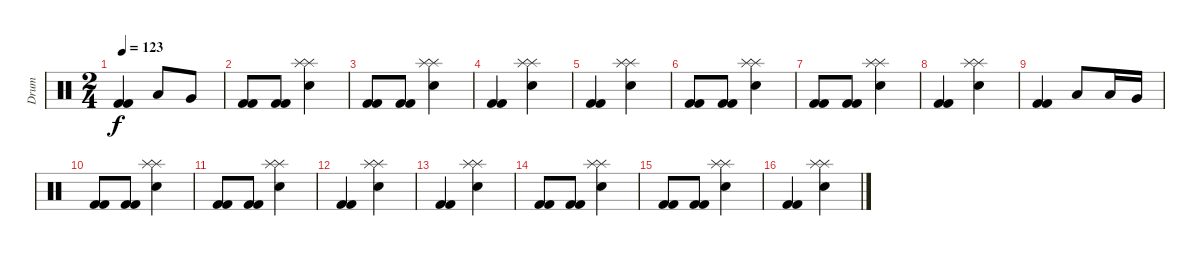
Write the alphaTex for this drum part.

\track ("Drum" "Drum") {instrument percussion}
\staff {score}
\articulation defaults
\ts (2 4)
\tempo 123
\clef neutral
\ks c
("Kick (hit) 2" "Kick (hit) 2").4{dy f} "Low Tom (hit)".8 "Very Low Tom (hit)".8 |
("Kick (hit) 2" "Kick (hit) 2").8 ("Kick (hit) 2" "Kick (hit) 2").8 ("Splash (hit)" "Splash (hit)" "Snare (hit) 2").4 |
("Kick (hit) 2" "Kick (hit) 2").8 ("Kick (hit) 2" "Kick (hit) 2").8 ("Splash (hit)" "Splash (hit)" "Snare (hit) 2").4 |
("Kick (hit) 2" "Kick (hit) 2").4 ("Splash (hit)" "Splash (hit)" "Snare (hit) 2").4 |
("Kick (hit) 2" "Kick (hit) 2").4 ("Splash (hit)" "Splash (hit)" "Snare (hit) 2").4 |
("Kick (hit) 2" "Kick (hit) 2").8 ("Kick (hit) 2" "Kick (hit) 2").8 ("Splash (hit)" "Splash (hit)" "Snare (hit) 2").4 |
("Kick (hit) 2" "Kick (hit) 2").8 ("Kick (hit) 2" "Kick (hit) 2").8 ("Splash (hit)" "Splash (hit)" "Snare (hit) 2").4 |
("Kick (hit) 2" "Kick (hit) 2").4 ("Splash (hit)" "Splash (hit)" "Snare (hit) 2").4 |
("Kick (hit) 2" "Kick (hit) 2").4 "Low Tom (hit)".8 "Low Tom (hit)".16 "Very Low Tom (hit)".16 |
("Kick (hit) 2" "Kick (hit) 2").8 ("Kick (hit) 2" "Kick (hit) 2").8 ("Splash (hit)" "Splash (hit)" "Snare (hit) 2").4 |
("Kick (hit) 2" "Kick (hit) 2").8 ("Kick (hit) 2" "Kick (hit) 2").8 ("Splash (hit)" "Splash (hit)" "Snare (hit) 2").4 |
("Kick (hit) 2" "Kick (hit) 2").4 ("Splash (hit)" "Splash (hit)" "Snare (hit) 2").4 |
("Kick (hit) 2" "Kick (hit) 2").4 ("Splash (hit)" "Splash (hit)" "Snare (hit) 2").4 |
("Kick (hit) 2" "Kick (hit) 2").8 ("Kick (hit) 2" "Kick (hit) 2").8 ("Splash (hit)" "Splash (hit)" "Snare (hit) 2").4 |
("Kick (hit) 2" "Kick (hit) 2").8 ("Kick (hit) 2" "Kick (hit) 2").8 ("Splash (hit)" "Splash (hit)" "Snare (hit) 2").4 |
("Kick (hit) 2" "Kick (hit) 2").4 ("Splash (hit)" "Splash (hit)" "Snare (hit) 2").4
